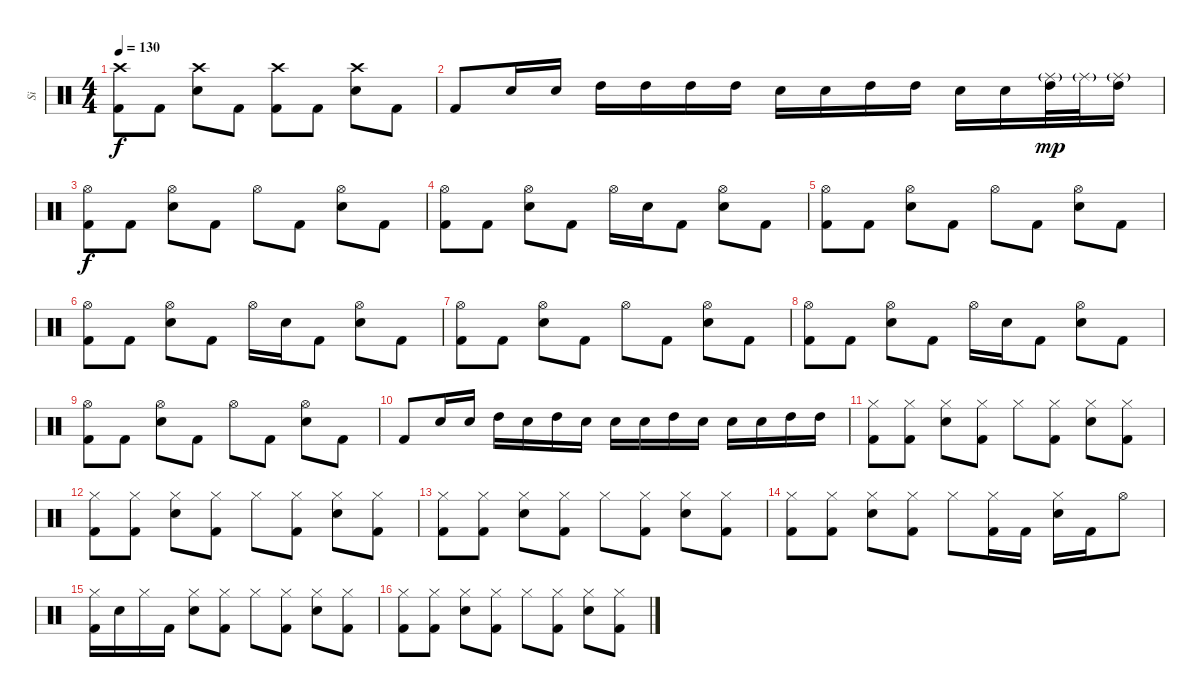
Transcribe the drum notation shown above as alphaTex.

\track ("Si" "Si") {instrument percussion}
\staff {score}
\articulation defaults
\ts (4 4)
\tempo 130
\clef neutral
\ks c
("Crash high (hit)" "Kick (hit) 2").8{dy f} "Kick (hit) 2".8 ("Crash high (hit)" "Electric Snare (hit)").8 "Kick (hit) 2".8 ("Crash high (hit)" "Kick (hit) 2").8 "Kick (hit) 2".8 ("Crash high (hit)" "Electric Snare (hit)").8 "Kick (hit) 2".8 |
"Kick (hit) 2".8 "Electric Snare (hit)".16 "Electric Snare (hit)".16 "High Tom (hit)".16 "High Tom (hit)".16 "High Tom (hit)".16 "High Tom (hit)".16 "Electric Snare (hit)".16 "Electric Snare (hit)".16 "High Tom (hit)".16 "High Tom (hit)".16 "Electric Snare (hit)".16 "Electric Snare (hit)".16 ("Ride (middle)"{g} "High Tom (hit)").32{dy mp} "Ride (middle)"{g}.32 ("Ride (middle)"{g} "High Tom (hit)").16 |
("Hi-Hat (open)" "Kick (hit) 2").8{dy f} "Kick (hit) 2".8 ("Hi-Hat (open)" "Electric Snare (hit)").8 "Kick (hit) 2".8 "Hi-Hat (open)".8 "Kick (hit) 2".8 ("Hi-Hat (open)" "Electric Snare (hit)").8 "Kick (hit) 2".8 |
("Hi-Hat (open)" "Kick (hit) 2").8 "Kick (hit) 2".8 ("Hi-Hat (open)" "Electric Snare (hit)").8 "Kick (hit) 2".8 "Hi-Hat (open)".16 "Electric Snare (hit)".16 "Kick (hit) 2".8 ("Hi-Hat (open)" "Electric Snare (hit)").8 "Kick (hit) 2".8 |
("Hi-Hat (open)" "Kick (hit) 2").8 "Kick (hit) 2".8 ("Hi-Hat (open)" "Electric Snare (hit)").8 "Kick (hit) 2".8 "Hi-Hat (open)".8 "Kick (hit) 2".8 ("Hi-Hat (open)" "Electric Snare (hit)").8 "Kick (hit) 2".8 |
("Hi-Hat (open)" "Kick (hit) 2").8 "Kick (hit) 2".8 ("Hi-Hat (open)" "Electric Snare (hit)").8 "Kick (hit) 2".8 "Hi-Hat (open)".16 "Electric Snare (hit)".16 "Kick (hit) 2".8 ("Hi-Hat (open)" "Electric Snare (hit)").8 "Kick (hit) 2".8 |
("Hi-Hat (open)" "Kick (hit) 2").8 "Kick (hit) 2".8 ("Hi-Hat (open)" "Electric Snare (hit)").8 "Kick (hit) 2".8 "Hi-Hat (open)".8 "Kick (hit) 2".8 ("Hi-Hat (open)" "Electric Snare (hit)").8 "Kick (hit) 2".8 |
("Hi-Hat (open)" "Kick (hit) 2").8 "Kick (hit) 2".8 ("Hi-Hat (open)" "Electric Snare (hit)").8 "Kick (hit) 2".8 "Hi-Hat (open)".16 "Electric Snare (hit)".16 "Kick (hit) 2".8 ("Hi-Hat (open)" "Electric Snare (hit)").8 "Kick (hit) 2".8 |
("Hi-Hat (open)" "Kick (hit) 2").8 "Kick (hit) 2".8 ("Hi-Hat (open)" "Electric Snare (hit)").8 "Kick (hit) 2".8 "Hi-Hat (open)".8 "Kick (hit) 2".8 ("Hi-Hat (open)" "Electric Snare (hit)").8 "Kick (hit) 2".8 |
"Kick (hit) 2".8 "Electric Snare (hit)".16 "Electric Snare (hit)".16 "High Tom (hit)".16 "Electric Snare (hit)".16 "High Tom (hit)".16 "Electric Snare (hit)".16 "Electric Snare (hit)".16 "Electric Snare (hit)".16 "High Tom (hit)".16 "Electric Snare (hit)".16 "Electric Snare (hit)".16 "Electric Snare (hit)".16 "High Tom (hit)".16 "High Tom (hit)".16 |
("Hi-Hat (closed)" "Kick (hit) 2").8 ("Hi-Hat (closed)" "Kick (hit) 2").8 ("Hi-Hat (closed)" "Electric Snare (hit)").8 ("Hi-Hat (closed)" "Kick (hit) 2").8 "Hi-Hat (closed)".8 ("Hi-Hat (closed)" "Kick (hit) 2").8 ("Hi-Hat (closed)" "Electric Snare (hit)").8 ("Hi-Hat (closed)" "Kick (hit) 2").8 |
("Hi-Hat (closed)" "Kick (hit) 2").8 ("Hi-Hat (closed)" "Kick (hit) 2").8 ("Hi-Hat (closed)" "Electric Snare (hit)").8 ("Hi-Hat (closed)" "Kick (hit) 2").8 "Hi-Hat (closed)".8 ("Hi-Hat (closed)" "Kick (hit) 2").8 ("Hi-Hat (closed)" "Electric Snare (hit)").8 ("Hi-Hat (closed)" "Kick (hit) 2").8 |
("Hi-Hat (closed)" "Kick (hit) 2").8 ("Hi-Hat (closed)" "Kick (hit) 2").8 ("Hi-Hat (closed)" "Electric Snare (hit)").8 ("Hi-Hat (closed)" "Kick (hit) 2").8 "Hi-Hat (closed)".8 ("Hi-Hat (closed)" "Kick (hit) 2").8 ("Hi-Hat (closed)" "Electric Snare (hit)").8 ("Hi-Hat (closed)" "Kick (hit) 2").8 |
("Hi-Hat (closed)" "Kick (hit) 2").8 ("Hi-Hat (closed)" "Kick (hit) 2").8 ("Hi-Hat (closed)" "Electric Snare (hit)").8 ("Hi-Hat (closed)" "Kick (hit) 2").8 "Hi-Hat (closed)".8 ("Hi-Hat (closed)" "Kick (hit) 2").16 "Kick (hit) 2".16 ("Hi-Hat (closed)" "Electric Snare (hit)").16 "Kick (hit) 2".16 "Hi-Hat (open)".8 |
("Hi-Hat (closed)" "Kick (hit) 2").16 "Electric Snare (hit)".16 "Hi-Hat (closed)".16 "Kick (hit) 2".16 ("Hi-Hat (closed)" "Electric Snare (hit)").8 ("Hi-Hat (closed)" "Kick (hit) 2").8 "Hi-Hat (closed)".8 ("Hi-Hat (closed)" "Kick (hit) 2").8 ("Hi-Hat (closed)" "Electric Snare (hit)").8 ("Hi-Hat (closed)" "Kick (hit) 2").8 |
("Hi-Hat (closed)" "Kick (hit) 2").8 ("Hi-Hat (closed)" "Kick (hit) 2").8 ("Hi-Hat (closed)" "Electric Snare (hit)").8 ("Hi-Hat (closed)" "Kick (hit) 2").8 "Hi-Hat (closed)".8 ("Hi-Hat (closed)" "Kick (hit) 2").8 ("Hi-Hat (closed)" "Electric Snare (hit)").8 ("Hi-Hat (closed)" "Kick (hit) 2").8
